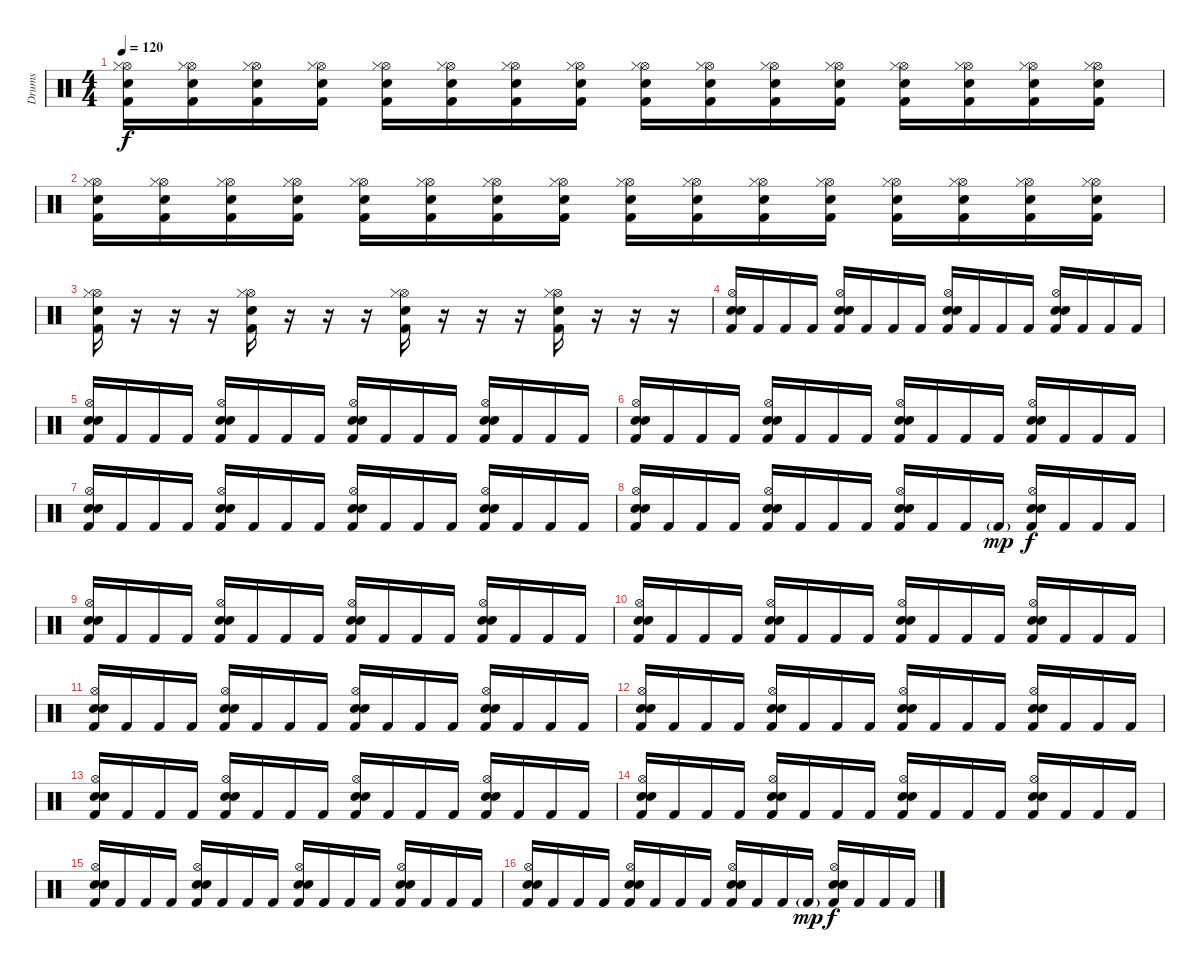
\track ("Drums" "Drums") {instrument percussion}
\staff {score}
\articulation defaults
\ts (4 4)
\tempo 120
\clef neutral
\ks c
("Kick (hit) 2" "Electric Snare (hit)" "Hi-Hat (open)" "Hi-Hat (closed)").16{dy f} ("Kick (hit) 2" "Electric Snare (hit)" "Hi-Hat (open)" "Hi-Hat (closed)").16 ("Kick (hit) 2" "Electric Snare (hit)" "Hi-Hat (open)" "Hi-Hat (closed)").16 ("Kick (hit) 2" "Electric Snare (hit)" "Hi-Hat (open)" "Hi-Hat (closed)").16 ("Kick (hit) 2" "Electric Snare (hit)" "Hi-Hat (open)" "Hi-Hat (closed)").16 ("Kick (hit) 2" "Electric Snare (hit)" "Hi-Hat (open)" "Hi-Hat (closed)").16 ("Kick (hit) 2" "Electric Snare (hit)" "Hi-Hat (open)" "Hi-Hat (closed)").16 ("Kick (hit) 2" "Electric Snare (hit)" "Hi-Hat (open)" "Hi-Hat (closed)").16 ("Kick (hit) 2" "Electric Snare (hit)" "Hi-Hat (open)" "Hi-Hat (closed)").16 ("Kick (hit) 2" "Electric Snare (hit)" "Hi-Hat (open)" "Hi-Hat (closed)").16 ("Kick (hit) 2" "Electric Snare (hit)" "Hi-Hat (open)" "Hi-Hat (closed)").16 ("Kick (hit) 2" "Electric Snare (hit)" "Hi-Hat (open)" "Hi-Hat (closed)").16 ("Kick (hit) 2" "Electric Snare (hit)" "Hi-Hat (open)" "Hi-Hat (closed)").16 ("Kick (hit) 2" "Electric Snare (hit)" "Hi-Hat (open)" "Hi-Hat (closed)").16 ("Kick (hit) 2" "Electric Snare (hit)" "Hi-Hat (open)" "Hi-Hat (closed)").16 ("Kick (hit) 2" "Electric Snare (hit)" "Hi-Hat (open)" "Hi-Hat (closed)").16 |
("Kick (hit) 2" "Electric Snare (hit)" "Hi-Hat (open)" "Hi-Hat (closed)").16 ("Kick (hit) 2" "Electric Snare (hit)" "Hi-Hat (open)" "Hi-Hat (closed)").16 ("Kick (hit) 2" "Electric Snare (hit)" "Hi-Hat (open)" "Hi-Hat (closed)").16 ("Kick (hit) 2" "Electric Snare (hit)" "Hi-Hat (open)" "Hi-Hat (closed)").16 ("Kick (hit) 2" "Electric Snare (hit)" "Hi-Hat (open)" "Hi-Hat (closed)").16 ("Kick (hit) 2" "Electric Snare (hit)" "Hi-Hat (open)" "Hi-Hat (closed)").16 ("Kick (hit) 2" "Electric Snare (hit)" "Hi-Hat (open)" "Hi-Hat (closed)").16 ("Kick (hit) 2" "Electric Snare (hit)" "Hi-Hat (open)" "Hi-Hat (closed)").16 ("Kick (hit) 2" "Electric Snare (hit)" "Hi-Hat (open)" "Hi-Hat (closed)").16 ("Kick (hit) 2" "Electric Snare (hit)" "Hi-Hat (open)" "Hi-Hat (closed)").16 ("Kick (hit) 2" "Electric Snare (hit)" "Hi-Hat (open)" "Hi-Hat (closed)").16 ("Kick (hit) 2" "Electric Snare (hit)" "Hi-Hat (open)" "Hi-Hat (closed)").16 ("Kick (hit) 2" "Electric Snare (hit)" "Hi-Hat (open)" "Hi-Hat (closed)").16 ("Kick (hit) 2" "Electric Snare (hit)" "Hi-Hat (open)" "Hi-Hat (closed)").16 ("Kick (hit) 2" "Electric Snare (hit)" "Hi-Hat (open)" "Hi-Hat (closed)").16 ("Kick (hit) 2" "Electric Snare (hit)" "Hi-Hat (open)" "Hi-Hat (closed)").16 |
("Kick (hit) 2" "Electric Snare (hit)" "Hi-Hat (open)" "Hi-Hat (closed)").16 r.16 r.16 r.16 ("Kick (hit) 2" "Electric Snare (hit)" "Hi-Hat (open)" "Hi-Hat (closed)").16 r.16 r.16 r.16 ("Kick (hit) 2" "Electric Snare (hit)" "Hi-Hat (open)" "Hi-Hat (closed)").16 r.16 r.16 r.16 ("Kick (hit) 2" "Electric Snare (hit)" "Hi-Hat (open)" "Hi-Hat (closed)").16 r.16 r.16 r.16 |
("Kick (hit) 2" "Hi-Hat (open)" "Electric Snare (hit)" "Snare (hit) 2").16 "Kick (hit) 2".16 "Kick (hit) 2".16 "Kick (hit) 2".16 ("Kick (hit) 2" "Hi-Hat (open)" "Electric Snare (hit)" "Snare (hit) 2").16 "Kick (hit) 2".16 "Kick (hit) 2".16 "Kick (hit) 2".16 ("Kick (hit) 2" "Hi-Hat (open)" "Electric Snare (hit)" "Snare (hit) 2").16 "Kick (hit) 2".16 "Kick (hit) 2".16 "Kick (hit) 2".16 ("Kick (hit) 2" "Hi-Hat (open)" "Electric Snare (hit)" "Snare (hit) 2").16 "Kick (hit) 2".16 "Kick (hit) 2".16 "Kick (hit) 2".16 |
("Kick (hit) 2" "Hi-Hat (open)" "Electric Snare (hit)" "Snare (hit) 2").16 "Kick (hit) 2".16 "Kick (hit) 2".16 "Kick (hit) 2".16 ("Kick (hit) 2" "Hi-Hat (open)" "Electric Snare (hit)" "Snare (hit) 2").16 "Kick (hit) 2".16 "Kick (hit) 2".16 "Kick (hit) 2".16 ("Kick (hit) 2" "Hi-Hat (open)" "Electric Snare (hit)" "Snare (hit) 2").16 "Kick (hit) 2".16 "Kick (hit) 2".16 "Kick (hit) 2".16 ("Kick (hit) 2" "Hi-Hat (open)" "Electric Snare (hit)" "Snare (hit) 2").16 "Kick (hit) 2".16 "Kick (hit) 2".16 "Kick (hit) 2".16 |
("Kick (hit) 2" "Hi-Hat (open)" "Electric Snare (hit)" "Snare (hit) 2").16 "Kick (hit) 2".16 "Kick (hit) 2".16 "Kick (hit) 2".16 ("Kick (hit) 2" "Hi-Hat (open)" "Electric Snare (hit)" "Snare (hit) 2").16 "Kick (hit) 2".16 "Kick (hit) 2".16 "Kick (hit) 2".16 ("Kick (hit) 2" "Hi-Hat (open)" "Electric Snare (hit)" "Snare (hit) 2").16 "Kick (hit) 2".16 "Kick (hit) 2".16 "Kick (hit) 2".16 ("Kick (hit) 2" "Hi-Hat (open)" "Electric Snare (hit)" "Snare (hit) 2").16 "Kick (hit) 2".16 "Kick (hit) 2".16 "Kick (hit) 2".16 |
("Kick (hit) 2" "Hi-Hat (open)" "Electric Snare (hit)" "Snare (hit) 2").16 "Kick (hit) 2".16 "Kick (hit) 2".16 "Kick (hit) 2".16 ("Kick (hit) 2" "Hi-Hat (open)" "Electric Snare (hit)" "Snare (hit) 2").16 "Kick (hit) 2".16 "Kick (hit) 2".16 "Kick (hit) 2".16 ("Kick (hit) 2" "Hi-Hat (open)" "Electric Snare (hit)" "Snare (hit) 2").16 "Kick (hit) 2".16 "Kick (hit) 2".16 "Kick (hit) 2".16 ("Kick (hit) 2" "Hi-Hat (open)" "Electric Snare (hit)" "Snare (hit) 2").16 "Kick (hit) 2".16 "Kick (hit) 2".16 "Kick (hit) 2".16 |
("Kick (hit) 2" "Hi-Hat (open)" "Electric Snare (hit)" "Snare (hit) 2").16 "Kick (hit) 2".16 "Kick (hit) 2".16 "Kick (hit) 2".16 ("Kick (hit) 2" "Hi-Hat (open)" "Electric Snare (hit)" "Snare (hit) 2").16 "Kick (hit) 2".16 "Kick (hit) 2".16 "Kick (hit) 2".16 ("Kick (hit) 2" "Hi-Hat (open)" "Electric Snare (hit)" "Snare (hit) 2").16 "Kick (hit) 2".16 "Kick (hit) 2".16 "Kick (hit) 2"{g}.16{dy mp} ("Kick (hit) 2" "Hi-Hat (open)" "Electric Snare (hit)" "Snare (hit) 2").16{dy f} "Kick (hit) 2".16 "Kick (hit) 2".16 "Kick (hit) 2".16 |
("Kick (hit) 2" "Hi-Hat (open)" "Electric Snare (hit)" "Snare (hit) 2").16 "Kick (hit) 2".16 "Kick (hit) 2".16 "Kick (hit) 2".16 ("Kick (hit) 2" "Hi-Hat (open)" "Electric Snare (hit)" "Snare (hit) 2").16 "Kick (hit) 2".16 "Kick (hit) 2".16 "Kick (hit) 2".16 ("Kick (hit) 2" "Hi-Hat (open)" "Electric Snare (hit)" "Snare (hit) 2").16 "Kick (hit) 2".16 "Kick (hit) 2".16 "Kick (hit) 2".16 ("Kick (hit) 2" "Hi-Hat (open)" "Electric Snare (hit)" "Snare (hit) 2").16 "Kick (hit) 2".16 "Kick (hit) 2".16 "Kick (hit) 2".16 |
("Kick (hit) 2" "Hi-Hat (open)" "Electric Snare (hit)" "Snare (hit) 2").16 "Kick (hit) 2".16 "Kick (hit) 2".16 "Kick (hit) 2".16 ("Kick (hit) 2" "Hi-Hat (open)" "Electric Snare (hit)" "Snare (hit) 2").16 "Kick (hit) 2".16 "Kick (hit) 2".16 "Kick (hit) 2".16 ("Kick (hit) 2" "Hi-Hat (open)" "Electric Snare (hit)" "Snare (hit) 2").16 "Kick (hit) 2".16 "Kick (hit) 2".16 "Kick (hit) 2".16 ("Kick (hit) 2" "Hi-Hat (open)" "Electric Snare (hit)" "Snare (hit) 2").16 "Kick (hit) 2".16 "Kick (hit) 2".16 "Kick (hit) 2".16 |
("Kick (hit) 2" "Hi-Hat (open)" "Electric Snare (hit)" "Snare (hit) 2").16 "Kick (hit) 2".16 "Kick (hit) 2".16 "Kick (hit) 2".16 ("Kick (hit) 2" "Hi-Hat (open)" "Electric Snare (hit)" "Snare (hit) 2").16 "Kick (hit) 2".16 "Kick (hit) 2".16 "Kick (hit) 2".16 ("Kick (hit) 2" "Hi-Hat (open)" "Electric Snare (hit)" "Snare (hit) 2").16 "Kick (hit) 2".16 "Kick (hit) 2".16 "Kick (hit) 2".16 ("Kick (hit) 2" "Hi-Hat (open)" "Electric Snare (hit)" "Snare (hit) 2").16 "Kick (hit) 2".16 "Kick (hit) 2".16 "Kick (hit) 2".16 |
("Kick (hit) 2" "Hi-Hat (open)" "Electric Snare (hit)" "Snare (hit) 2").16 "Kick (hit) 2".16 "Kick (hit) 2".16 "Kick (hit) 2".16 ("Kick (hit) 2" "Hi-Hat (open)" "Electric Snare (hit)" "Snare (hit) 2").16 "Kick (hit) 2".16 "Kick (hit) 2".16 "Kick (hit) 2".16 ("Kick (hit) 2" "Hi-Hat (open)" "Electric Snare (hit)" "Snare (hit) 2").16 "Kick (hit) 2".16 "Kick (hit) 2".16 "Kick (hit) 2".16 ("Kick (hit) 2" "Hi-Hat (open)" "Electric Snare (hit)" "Snare (hit) 2").16 "Kick (hit) 2".16 "Kick (hit) 2".16 "Kick (hit) 2".16 |
("Kick (hit) 2" "Hi-Hat (open)" "Electric Snare (hit)" "Snare (hit) 2").16 "Kick (hit) 2".16 "Kick (hit) 2".16 "Kick (hit) 2".16 ("Kick (hit) 2" "Hi-Hat (open)" "Electric Snare (hit)" "Snare (hit) 2").16 "Kick (hit) 2".16 "Kick (hit) 2".16 "Kick (hit) 2".16 ("Kick (hit) 2" "Hi-Hat (open)" "Electric Snare (hit)" "Snare (hit) 2").16 "Kick (hit) 2".16 "Kick (hit) 2".16 "Kick (hit) 2".16 ("Kick (hit) 2" "Hi-Hat (open)" "Electric Snare (hit)" "Snare (hit) 2").16 "Kick (hit) 2".16 "Kick (hit) 2".16 "Kick (hit) 2".16 |
("Kick (hit) 2" "Hi-Hat (open)" "Electric Snare (hit)" "Snare (hit) 2").16 "Kick (hit) 2".16 "Kick (hit) 2".16 "Kick (hit) 2".16 ("Kick (hit) 2" "Hi-Hat (open)" "Electric Snare (hit)" "Snare (hit) 2").16 "Kick (hit) 2".16 "Kick (hit) 2".16 "Kick (hit) 2".16 ("Kick (hit) 2" "Hi-Hat (open)" "Electric Snare (hit)" "Snare (hit) 2").16 "Kick (hit) 2".16 "Kick (hit) 2".16 "Kick (hit) 2".16 ("Kick (hit) 2" "Hi-Hat (open)" "Electric Snare (hit)" "Snare (hit) 2").16 "Kick (hit) 2".16 "Kick (hit) 2".16 "Kick (hit) 2".16 |
("Kick (hit) 2" "Hi-Hat (open)" "Electric Snare (hit)" "Snare (hit) 2").16 "Kick (hit) 2".16 "Kick (hit) 2".16 "Kick (hit) 2".16 ("Kick (hit) 2" "Hi-Hat (open)" "Electric Snare (hit)" "Snare (hit) 2").16 "Kick (hit) 2".16 "Kick (hit) 2".16 "Kick (hit) 2".16 ("Kick (hit) 2" "Hi-Hat (open)" "Electric Snare (hit)" "Snare (hit) 2").16 "Kick (hit) 2".16 "Kick (hit) 2".16 "Kick (hit) 2".16 ("Kick (hit) 2" "Hi-Hat (open)" "Electric Snare (hit)" "Snare (hit) 2").16 "Kick (hit) 2".16 "Kick (hit) 2".16 "Kick (hit) 2".16 |
("Kick (hit) 2" "Hi-Hat (open)" "Electric Snare (hit)" "Snare (hit) 2").16 "Kick (hit) 2".16 "Kick (hit) 2".16 "Kick (hit) 2".16 ("Kick (hit) 2" "Hi-Hat (open)" "Electric Snare (hit)" "Snare (hit) 2").16 "Kick (hit) 2".16 "Kick (hit) 2".16 "Kick (hit) 2".16 ("Kick (hit) 2" "Hi-Hat (open)" "Electric Snare (hit)" "Snare (hit) 2").16 "Kick (hit) 2".16 "Kick (hit) 2".16 "Kick (hit) 2"{g}.16{dy mp} ("Kick (hit) 2" "Hi-Hat (open)" "Electric Snare (hit)" "Snare (hit) 2").16{dy f} "Kick (hit) 2".16 "Kick (hit) 2".16 "Kick (hit) 2".16
